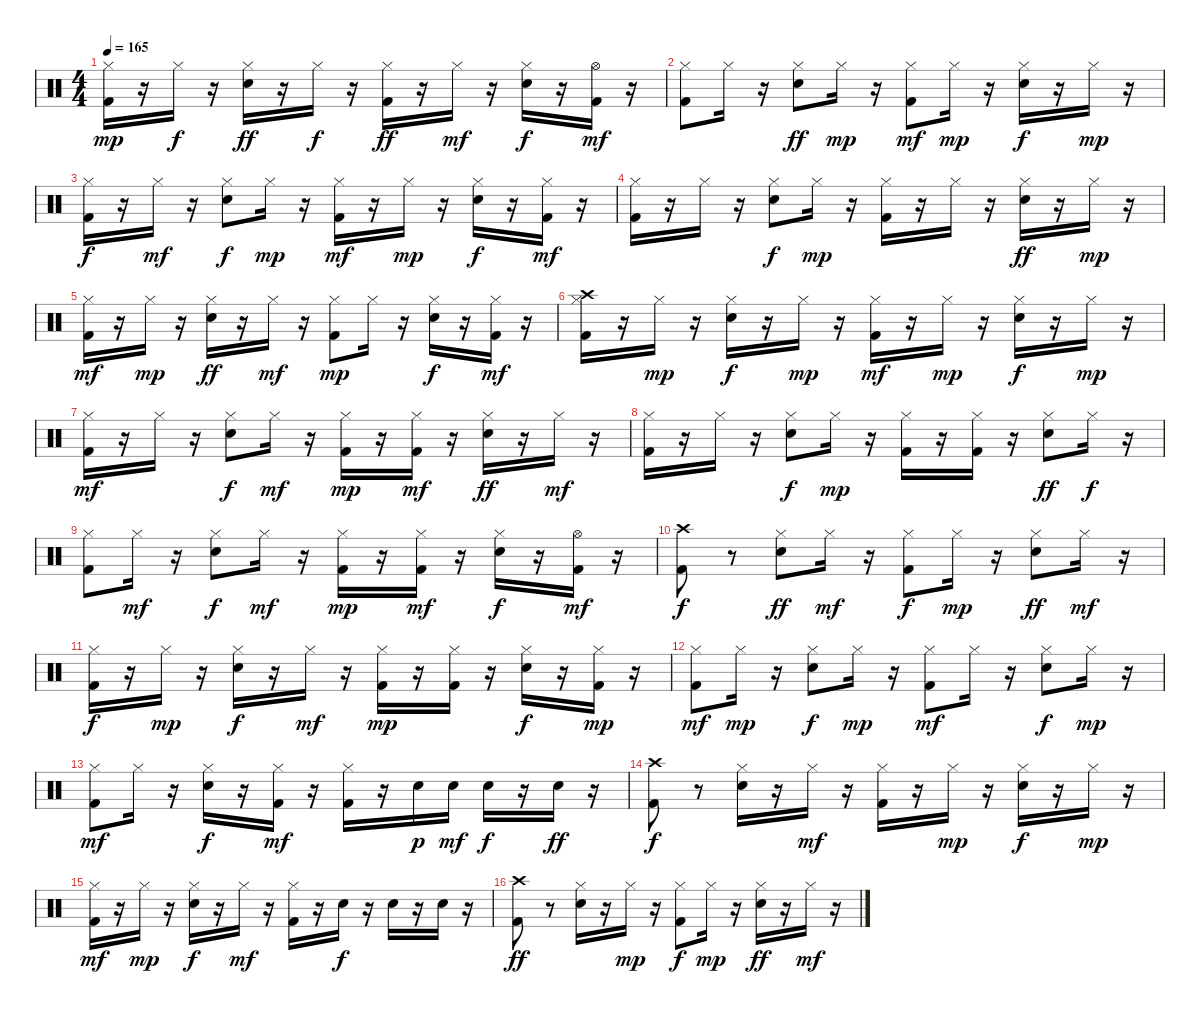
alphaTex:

\track "" {instrument percussion}
\staff {score}
\articulation defaults
\ts (4 4)
\tempo 165
\clef neutral
\ks c
("Hi-Hat (closed)" "Kick (hit) 2").16{dy mp} r.16 "Hi-Hat (closed)".16{dy f} r.16 ("Hi-Hat (closed)" "Electric Snare (hit)").16{dy ff} r.16 "Hi-Hat (closed)".16{dy f} r.16 ("Kick (hit) 2" "Hi-Hat (closed)").16{dy ff} r.16 "Hi-Hat (closed)".16{dy mf} r.16 ("Electric Snare (hit)" "Hi-Hat (closed)").16{dy f} r.16 ("Kick (hit) 2" "Hi-Hat (open)").16{dy mf} r.16 |
("Hi-Hat (closed)" "Kick (hit) 2").8 "Hi-Hat (closed)".16 r.16 ("Hi-Hat (closed)" "Electric Snare (hit)").8{dy ff} "Hi-Hat (closed)".16{dy mp} r.16 ("Kick (hit) 2" "Hi-Hat (closed)").8{dy mf} "Hi-Hat (closed)".16{dy mp} r.16 ("Electric Snare (hit)" "Hi-Hat (closed)").16{dy f} r.16 "Hi-Hat (closed)".16{dy mp} r.16 |
("Kick (hit) 2" "Hi-Hat (closed)").16{dy f} r.16 "Hi-Hat (closed)".16{dy mf} r.16 ("Hi-Hat (closed)" "Electric Snare (hit)").8{dy f} "Hi-Hat (closed)".16{dy mp} r.16 ("Kick (hit) 2" "Hi-Hat (closed)").16{dy mf} r.16 "Hi-Hat (closed)".16{dy mp} r.16 ("Electric Snare (hit)" "Hi-Hat (closed)").16{dy f} r.16 ("Hi-Hat (closed)" "Kick (hit) 2").16{dy mf} r.16 |
("Hi-Hat (closed)" "Kick (hit) 2").16 r.16 "Hi-Hat (closed)".16 r.16 ("Electric Snare (hit)" "Hi-Hat (closed)").8{dy f} "Hi-Hat (closed)".16{dy mp} r.16 ("Hi-Hat (closed)" "Kick (hit) 2").16 r.16 "Hi-Hat (closed)".16 r.16 ("Electric Snare (hit)" "Hi-Hat (closed)").16{dy ff} r.16 "Hi-Hat (closed)".16{dy mp} r.16 |
("Kick (hit) 2" "Hi-Hat (closed)").16{dy mf} r.16 "Hi-Hat (closed)".16{dy mp} r.16 ("Hi-Hat (closed)" "Electric Snare (hit)").16{dy ff} r.16 "Hi-Hat (closed)".16{dy mf} r.16 ("Hi-Hat (closed)" "Kick (hit) 2").8{dy mp} "Hi-Hat (closed)".16 r.16 ("Hi-Hat (closed)" "Electric Snare (hit)").16{dy f} r.16 ("Hi-Hat (closed)" "Kick (hit) 2").16{dy mf} r.16 |
("Kick (hit) 2" "Crash high (hit)" "Hi-Hat (closed)").16 r.16 "Hi-Hat (closed)".16{dy mp} r.16 ("Hi-Hat (closed)" "Electric Snare (hit)").16{dy f} r.16 "Hi-Hat (closed)".16{dy mp} r.16 ("Hi-Hat (closed)" "Kick (hit) 2").16{dy mf} r.16 "Hi-Hat (closed)".16{dy mp} r.16 ("Electric Snare (hit)" "Hi-Hat (closed)").16{dy f} r.16 "Hi-Hat (closed)".16{dy mp} r.16 |
("Hi-Hat (closed)" "Kick (hit) 2").16{dy mf} r.16 "Hi-Hat (closed)".16 r.16 ("Hi-Hat (closed)" "Electric Snare (hit)").8{dy f} "Hi-Hat (closed)".16{dy mf} r.16 ("Kick (hit) 2" "Hi-Hat (closed)").16{dy mp} r.16 ("Kick (hit) 2" "Hi-Hat (closed)").16{dy mf} r.16 ("Electric Snare (hit)" "Hi-Hat (closed)").16{dy ff} r.16 "Hi-Hat (closed)".16{dy mf} r.16 |
("Kick (hit) 2" "Hi-Hat (closed)").16 r.16 "Hi-Hat (closed)".16 r.16 ("Hi-Hat (closed)" "Electric Snare (hit)").8{dy f} "Hi-Hat (closed)".16{dy mp} r.16 ("Kick (hit) 2" "Hi-Hat (closed)").16 r.16 ("Kick (hit) 2" "Hi-Hat (closed)").16 r.16 ("Hi-Hat (closed)" "Electric Snare (hit)").8{dy ff} "Hi-Hat (closed)".16{dy f} r.16 |
("Kick (hit) 2" "Hi-Hat (closed)").8 "Hi-Hat (closed)".16{dy mf} r.16 ("Electric Snare (hit)" "Hi-Hat (closed)").8{dy f} "Hi-Hat (closed)".16{dy mf} r.16 ("Hi-Hat (closed)" "Kick (hit) 2").16{dy mp} r.16 ("Kick (hit) 2" "Hi-Hat (closed)").16{dy mf} r.16 ("Electric Snare (hit)" "Hi-Hat (closed)").16{dy f} r.16 ("Kick (hit) 2" "Hi-Hat (open)").16{dy mf} r.16 |
("Kick (hit) 2" "Crash high (hit)").8{dy f} r.8 ("Hi-Hat (closed)" "Electric Snare (hit)").8{dy ff} "Hi-Hat (closed)".16{dy mf} r.16 ("Kick (hit) 2" "Hi-Hat (closed)").8{dy f} "Hi-Hat (closed)".16{dy mp} r.16 ("Hi-Hat (closed)" "Electric Snare (hit)").8{dy ff} "Hi-Hat (closed)".16{dy mf} r.16 |
("Hi-Hat (closed)" "Kick (hit) 2").16{dy f} r.16 "Hi-Hat (closed)".16{dy mp} r.16 ("Electric Snare (hit)" "Hi-Hat (closed)").16{dy f} r.16 "Hi-Hat (closed)".16{dy mf} r.16 ("Kick (hit) 2" "Hi-Hat (closed)").16{dy mp} r.16 ("Hi-Hat (closed)" "Kick (hit) 2").16 r.16 ("Hi-Hat (closed)" "Electric Snare (hit)").16{dy f} r.16 ("Hi-Hat (closed)" "Kick (hit) 2").16{dy mp} r.16 |
("Hi-Hat (closed)" "Kick (hit) 2").8{dy mf} "Hi-Hat (closed)".16{dy mp} r.16 ("Hi-Hat (closed)" "Electric Snare (hit)").8{dy f} "Hi-Hat (closed)".16{dy mp} r.16 ("Hi-Hat (closed)" "Kick (hit) 2").8{dy mf} "Hi-Hat (closed)".16 r.16 ("Hi-Hat (closed)" "Electric Snare (hit)").8{dy f} "Hi-Hat (closed)".16{dy mp} r.16 |
("Kick (hit) 2" "Hi-Hat (closed)").8{dy mf} "Hi-Hat (closed)".16 r.16 ("Electric Snare (hit)" "Hi-Hat (closed)").16{dy f} r.16 ("Hi-Hat (closed)" "Kick (hit) 2").16{dy mf} r.16 ("Kick (hit) 2" "Hi-Hat (closed)").16 r.16 "Electric Snare (hit)".16{dy p} "Electric Snare (hit)".16{dy mf} "Electric Snare (hit)".16{dy f} r.16 "Electric Snare (hit)".16{dy ff} r.16 |
("Kick (hit) 2" "Crash high (hit)").8{dy f} r.8 ("Electric Snare (hit)" "Hi-Hat (closed)").16 r.16 "Hi-Hat (closed)".16{dy mf} r.16 ("Hi-Hat (closed)" "Kick (hit) 2").16 r.16 "Hi-Hat (closed)".16{dy mp} r.16 ("Electric Snare (hit)" "Hi-Hat (closed)").16{dy f} r.16 "Hi-Hat (closed)".16{dy mp} r.16 |
("Kick (hit) 2" "Hi-Hat (closed)").16{dy mf} r.16 "Hi-Hat (closed)".16{dy mp} r.16 ("Hi-Hat (closed)" "Electric Snare (hit)").16{dy f} r.16 "Hi-Hat (closed)".16{dy mf} r.16 ("Hi-Hat (closed)" "Kick (hit) 2").16 r.16 "Electric Snare (hit)".16{dy f} r.16 "Electric Snare (hit)".16 r.16 "Electric Snare (hit)".16 r.16 |
("Crash high (hit)" "Kick (hit) 2").8{dy ff} r.8 ("Electric Snare (hit)" "Hi-Hat (closed)").16 r.16 "Hi-Hat (closed)".16{dy mp} r.16 ("Kick (hit) 2" "Hi-Hat (closed)").8{dy f} "Hi-Hat (closed)".16{dy mp} r.16 ("Hi-Hat (closed)" "Electric Snare (hit)").16{dy ff} r.16 "Hi-Hat (closed)".16{dy mf} r.16
